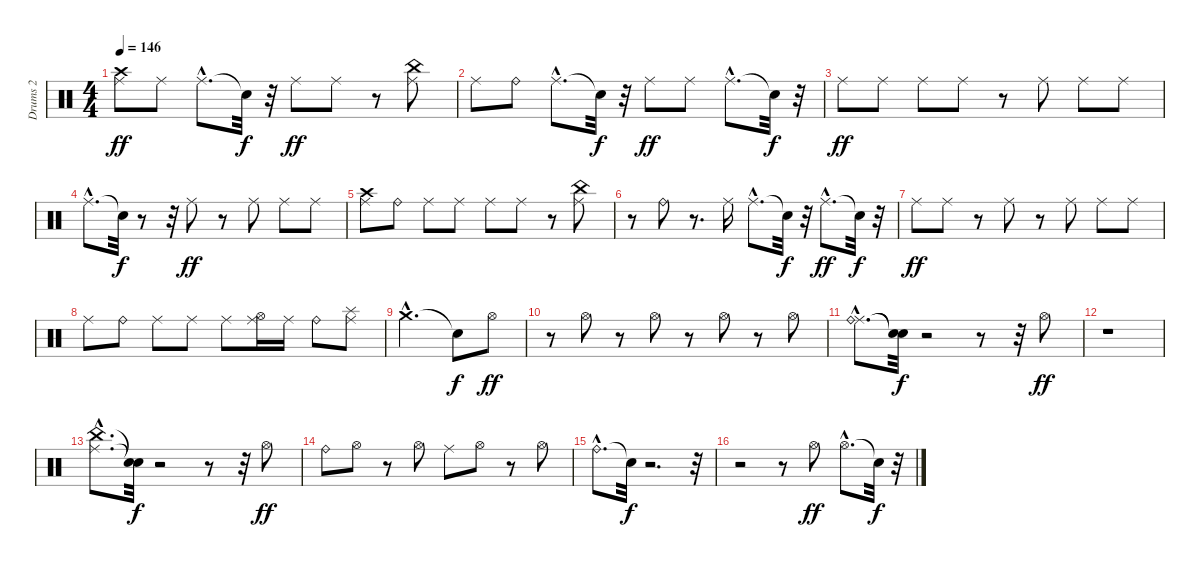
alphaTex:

\track ("Drums 2" "Drums 2") {instrument percussion}
\staff {score}
\articulation defaults
\ts (4 4)
\tempo 146
\clef neutral
\ks c
("Crash high (hit)" "Ride (middle)").8{dy ff} "Ride (middle)".8 "Ride (middle)"{hac}.8{d} "Snare (hit)"{t}.32{dy f} r.32 "Ride (middle)".8{dy ff} "Ride (middle)".8 r.8 ("Ride (middle)" "China (hit)").8 |
"Ride (middle)".8 "Ride (bell)".8 "Ride (middle)"{hac}.8{d} "Snare (hit)"{t}.32{dy f} r.32 "Ride (middle)".8{dy ff} "Ride (middle)".8 "Ride (middle)"{hac}.8{d} "Snare (hit)"{t}.32{dy f} r.32 |
"Ride (middle)".8{dy ff} "Ride (middle)".8 "Ride (middle)".8 "Ride (middle)".8 r.8 "Ride (middle)".8 "Ride (middle)".8 "Ride (middle)".8 |
"Ride (middle)"{hac}.8{d} "Snare (hit)"{t}.32{dy f} r.8 r.32 "Ride (middle)".8{dy ff} r.8 "Ride (middle)".8 "Ride (middle)".8 "Ride (middle)".8 |
("Crash high (hit)" "Ride (middle)").8 "Ride (bell)".8 "Ride (middle)".8 "Ride (middle)".8 "Ride (middle)".8 "Ride (middle)".8 r.8 ("Ride (middle)" "China (hit)").8 |
r.8 "Ride (bell)".8 r.8{d} "Ride (middle)".16 "Ride (middle)"{hac}.8{d} "Snare (hit)"{t}.32{dy f} r.32 "Ride (middle)"{hac}.8{d dy ff} "Snare (hit)"{t}.32{dy f} r.32 |
"Ride (middle)".8{dy ff} "Ride (middle)".8 r.8 "Ride (middle)".8 r.8 "Ride (middle)".8 "Ride (middle)".8 "Ride (middle)".8 |
"Ride (middle)".8 "Ride (bell)".8 "Ride (middle)".8 "Ride (middle)".8 "Ride (middle)".8 ("Hi-Hat (open)" "Ride (middle)").16 "Ride (middle)".16 "Ride (bell)".8 ("Ride (middle)" "Splash (hit)").8 |
"Crash medium (hit)"{hac}.2{d} "Snare (hit)"{t}.8{dy f} "Hi-Hat (open)".8{dy ff} |
r.8 "Hi-Hat (open)".8 r.8 "Hi-Hat (open)".8 r.8 "Hi-Hat (open)".8 r.8 "Hi-Hat (open)".8 |
("Ride (middle)"{hac} "Ride (bell)"{hac}).8{d} ("Snare (hit)"{t} "Snare (hit)"{t}).32{dy f} r.2 r.8 r.32 "Hi-Hat (open)".8{dy ff} |
r.1 |
("Ride (middle)"{hac} "China (hit)"{hac}).8{d} ("Snare (hit)"{t} "Snare (hit)"{t}).32{dy f} r.2 r.8 r.32 "Hi-Hat (open)".8{dy ff} |
"Ride (bell)".8 "Hi-Hat (open)".8 r.8 "Hi-Hat (open)".8 "Ride (middle)".8 "Hi-Hat (open)".8 r.8 "Hi-Hat (open)".8 |
"Ride (bell)"{hac}.8{d} "Snare (hit)"{t}.32{dy f} r.2{d} r.32 |
r.2 r.8 "Hi-Hat (open)".8{dy ff} "Hi-Hat (open)"{hac}.8{d} "Snare (hit)"{t}.32{dy f} r.32
